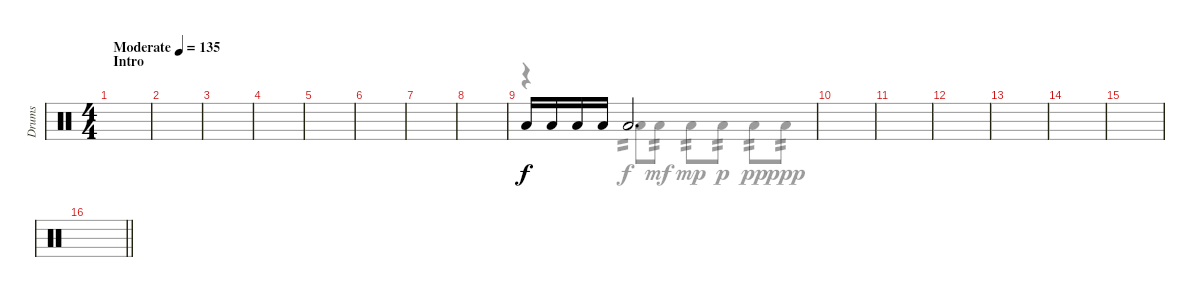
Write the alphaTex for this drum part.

\track ("Drums" "Drums") {instrument percussion}
\staff {score}
\articulation defaults
\voice
\ts (4 4)
\section ("" "Intro")
\tempo (135 "Moderate")
\clef neutral
\ks c
|
|
|
|
|
|
|
|
"Low Tom (hit)".16 "Low Tom (hit)".16 "Low Tom (hit)".16 "Low Tom (hit)".16 "Low Tom (hit)".2{d} |
|
|
|
|
|
|
\barLineRight lightlight
\voice
\clef neutral
\ottava regular
\simile none
\ks c
|
|
|
|
|
|
|
|
r.4 "Low Tom (hit)".8{tp 2} "Low Tom (hit)".8{tp 2 dy mf} "Low Tom (hit)".8{tp 2 dy mp} "Low Tom (hit)".8{tp 2 dy p} "Low Tom (hit)".8{tp 2 dy pp} "Low Tom (hit)".8{tp 2 dy ppp} |
|
|
|
|
|
|
\barLineRight lightlight
